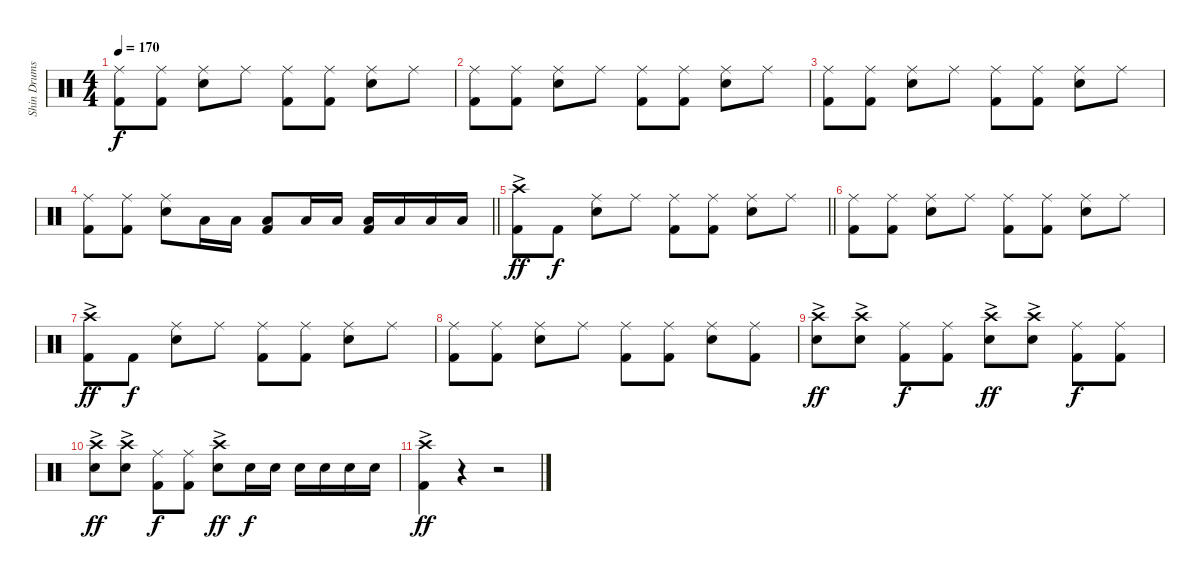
\track ("Shin Drums" "Shin Drums") {instrument percussion}
\staff {score}
\articulation defaults
\ts (4 4)
\tempo 170
\clef neutral
\ks c
("Ride (middle)" "Kick (hit) 2").8{dy f} ("Ride (middle)" "Kick (hit) 2").8 ("Ride (middle)" "Snare (hit) 2").8 "Ride (middle)".8 ("Ride (middle)" "Kick (hit) 2").8 ("Ride (middle)" "Kick (hit) 2").8 ("Ride (middle)" "Snare (hit) 2").8 "Ride (middle)".8 |
("Ride (middle)" "Kick (hit) 2").8 ("Ride (middle)" "Kick (hit) 2").8 ("Ride (middle)" "Snare (hit) 2").8 "Ride (middle)".8 ("Ride (middle)" "Kick (hit) 2").8 ("Ride (middle)" "Kick (hit) 2").8 ("Ride (middle)" "Snare (hit) 2").8 "Ride (middle)".8 |
("Ride (middle)" "Kick (hit) 2").8 ("Ride (middle)" "Kick (hit) 2").8 ("Ride (middle)" "Snare (hit) 2").8 "Ride (middle)".8 ("Ride (middle)" "Kick (hit) 2").8 ("Ride (middle)" "Kick (hit) 2").8 ("Ride (middle)" "Snare (hit) 2").8 "Ride (middle)".8 |
\barLineRight lightlight
("Ride (middle)" "Kick (hit) 2").8 ("Ride (middle)" "Kick (hit) 2").8 ("Ride (middle)" "Snare (hit) 2").8 "Low Tom (hit)".16 "Low Tom (hit)".16 ("Low Tom (hit)" "Kick (hit) 2").8 "Low Floor Tom (hit)".16 "Low Floor Tom (hit)".16 ("Low Floor Tom (hit)" "Kick (hit) 2").16 "Low Floor Tom (hit)".16 "Low Floor Tom (hit)".16 "Low Floor Tom (hit)".16 |
\barLineRight lightlight
("Crash high (hit)"{ac} "Kick (hit) 2").8{dy ff} "Kick (hit) 2".8{dy f} ("Ride (middle)" "Snare (hit) 2").8 "Ride (middle)".8 ("Ride (middle)" "Kick (hit) 2").8 ("Ride (middle)" "Kick (hit) 2").8 ("Ride (middle)" "Snare (hit) 2").8 "Ride (middle)".8 |
("Ride (middle)" "Kick (hit) 2").8 ("Ride (middle)" "Kick (hit) 2").8 ("Ride (middle)" "Snare (hit) 2").8 "Ride (middle)".8 ("Ride (middle)" "Kick (hit) 2").8 ("Ride (middle)" "Kick (hit) 2").8 ("Ride (middle)" "Snare (hit) 2").8 "Ride (middle)".8 |
("Crash high (hit)"{ac} "Kick (hit) 2").8{dy ff} "Kick (hit) 2".8{dy f} ("Ride (middle)" "Snare (hit) 2").8 "Ride (middle)".8 ("Ride (middle)" "Kick (hit) 2").8 ("Ride (middle)" "Kick (hit) 2").8 ("Ride (middle)" "Snare (hit) 2").8 "Ride (middle)".8 |
("Ride (middle)" "Kick (hit) 2").8 ("Ride (middle)" "Kick (hit) 2").8 ("Ride (middle)" "Snare (hit) 2").8 "Ride (middle)".8 ("Ride (middle)" "Kick (hit) 2").8 ("Ride (middle)" "Kick (hit) 2").8 ("Ride (middle)" "Snare (hit) 2").8 ("Ride (middle)" "Kick (hit) 2").8 |
("Crash high (hit)"{ac} "Snare (hit) 2").8{dy ff} ("Crash high (hit)"{ac} "Snare (hit) 2").8 ("Ride (middle)" "Kick (hit) 2").8{dy f} ("Ride (middle)" "Kick (hit) 2").8 ("Crash high (hit)"{ac} "Snare (hit) 2").8{dy ff} ("Crash high (hit)"{ac} "Snare (hit) 2").8 ("Ride (middle)" "Kick (hit) 2").8{dy f} ("Ride (middle)" "Kick (hit) 2").8 |
("Crash high (hit)"{ac} "Snare (hit) 2").8{dy ff} ("Crash high (hit)"{ac} "Snare (hit) 2").8 ("Ride (middle)" "Kick (hit) 2").8{dy f} ("Ride (middle)" "Kick (hit) 2").8 ("Crash high (hit)"{ac} "Snare (hit) 2").8{dy ff} "Snare (hit) 2".16{dy f} "Snare (hit) 2".16 "Snare (hit) 2".16 "Snare (hit) 2".16 "Snare (hit) 2".16 "Snare (hit) 2".16 |
("Crash high (hit)"{ac} "Kick (hit) 2").4{dy ff} r.4 r.2
